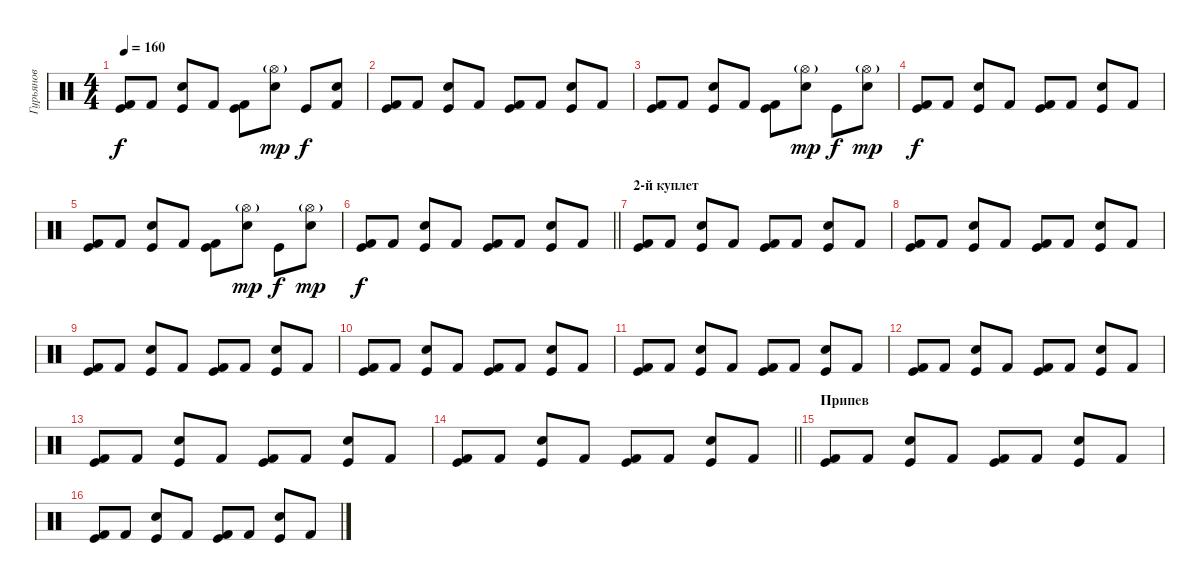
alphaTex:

\track ("Гурьянов" "Гурьянов") {instrument percussion}
\staff {score}
\articulation defaults
\ts (4 4)
\tempo 160
\clef neutral
\ks c
("Kick (hit)" "Kick (hit) 2").8{dy f} "Kick (hit) 2".8 ("Snare (hit) 2" "Kick (hit)").8 "Kick (hit) 2".8 ("Kick (hit)" "Kick (hit) 2").8 ("Hi-Hat (open)"{g} "Snare (hit) 2").8{dy mp} "Kick (hit)".8{dy f} ("Snare (hit) 2" "Kick (hit) 2").8 |
("Kick (hit)" "Kick (hit) 2").8 "Kick (hit) 2".8 ("Snare (hit) 2" "Kick (hit)").8 "Kick (hit) 2".8 ("Kick (hit)" "Kick (hit) 2").8 "Kick (hit) 2".8 ("Snare (hit) 2" "Kick (hit)").8 "Kick (hit) 2".8 |
("Kick (hit)" "Kick (hit) 2").8 "Kick (hit) 2".8 ("Snare (hit) 2" "Kick (hit)").8 "Kick (hit) 2".8 ("Kick (hit)" "Kick (hit) 2").8 ("Hi-Hat (open)"{g} "Snare (hit) 2").8{dy mp} "Kick (hit)".8{dy f} ("Hi-Hat (open)"{g} "Snare (hit) 2").8{dy mp} |
("Kick (hit)" "Kick (hit) 2").8{dy f} "Kick (hit) 2".8 ("Snare (hit) 2" "Kick (hit)").8 "Kick (hit) 2".8 ("Kick (hit)" "Kick (hit) 2").8 "Kick (hit) 2".8 ("Snare (hit) 2" "Kick (hit)").8 "Kick (hit) 2".8 |
("Kick (hit)" "Kick (hit) 2").8 "Kick (hit) 2".8 ("Snare (hit) 2" "Kick (hit)").8 "Kick (hit) 2".8 ("Kick (hit)" "Kick (hit) 2").8 ("Hi-Hat (open)"{g} "Snare (hit) 2").8{dy mp} "Kick (hit)".8{dy f} ("Hi-Hat (open)"{g} "Snare (hit) 2").8{dy mp} |
\barLineRight lightlight
("Kick (hit)" "Kick (hit) 2").8{dy f} "Kick (hit) 2".8 ("Snare (hit) 2" "Kick (hit)").8 "Kick (hit) 2".8 ("Kick (hit)" "Kick (hit) 2").8 "Kick (hit) 2".8 ("Snare (hit) 2" "Kick (hit)").8 "Kick (hit) 2".8 |
\section ("" "2-й куплет")
("Kick (hit)" "Kick (hit) 2").8 "Kick (hit) 2".8 ("Snare (hit) 2" "Kick (hit)").8 "Kick (hit) 2".8 ("Kick (hit)" "Kick (hit) 2").8 "Kick (hit) 2".8 ("Snare (hit) 2" "Kick (hit)").8 "Kick (hit) 2".8 |
("Kick (hit)" "Kick (hit) 2").8 "Kick (hit) 2".8 ("Snare (hit) 2" "Kick (hit)").8 "Kick (hit) 2".8 ("Kick (hit)" "Kick (hit) 2").8 "Kick (hit) 2".8 ("Snare (hit) 2" "Kick (hit)").8 "Kick (hit) 2".8 |
("Kick (hit)" "Kick (hit) 2").8 "Kick (hit) 2".8 ("Snare (hit) 2" "Kick (hit)").8 "Kick (hit) 2".8 ("Kick (hit)" "Kick (hit) 2").8 "Kick (hit) 2".8 ("Snare (hit) 2" "Kick (hit)").8 "Kick (hit) 2".8 |
("Kick (hit)" "Kick (hit) 2").8 "Kick (hit) 2".8 ("Snare (hit) 2" "Kick (hit)").8 "Kick (hit) 2".8 ("Kick (hit)" "Kick (hit) 2").8 "Kick (hit) 2".8 ("Snare (hit) 2" "Kick (hit)").8 "Kick (hit) 2".8 |
("Kick (hit)" "Kick (hit) 2").8 "Kick (hit) 2".8 ("Snare (hit) 2" "Kick (hit)").8 "Kick (hit) 2".8 ("Kick (hit)" "Kick (hit) 2").8 "Kick (hit) 2".8 ("Snare (hit) 2" "Kick (hit)").8 "Kick (hit) 2".8 |
("Kick (hit)" "Kick (hit) 2").8 "Kick (hit) 2".8 ("Snare (hit) 2" "Kick (hit)").8 "Kick (hit) 2".8 ("Kick (hit)" "Kick (hit) 2").8 "Kick (hit) 2".8 ("Snare (hit) 2" "Kick (hit)").8 "Kick (hit) 2".8 |
("Kick (hit)" "Kick (hit) 2").8 "Kick (hit) 2".8 ("Snare (hit) 2" "Kick (hit)").8 "Kick (hit) 2".8 ("Kick (hit)" "Kick (hit) 2").8 "Kick (hit) 2".8 ("Snare (hit) 2" "Kick (hit)").8 "Kick (hit) 2".8 |
\barLineRight lightlight
("Kick (hit)" "Kick (hit) 2").8 "Kick (hit) 2".8 ("Snare (hit) 2" "Kick (hit)").8 "Kick (hit) 2".8 ("Kick (hit)" "Kick (hit) 2").8 "Kick (hit) 2".8 ("Snare (hit) 2" "Kick (hit)").8 "Kick (hit) 2".8 |
\section ("" "Припев")
("Kick (hit)" "Kick (hit) 2").8 "Kick (hit) 2".8 ("Snare (hit) 2" "Kick (hit)").8 "Kick (hit) 2".8 ("Kick (hit)" "Kick (hit) 2").8 "Kick (hit) 2".8 ("Snare (hit) 2" "Kick (hit)").8 "Kick (hit) 2".8 |
("Kick (hit)" "Kick (hit) 2").8 "Kick (hit) 2".8 ("Snare (hit) 2" "Kick (hit)").8 "Kick (hit) 2".8 ("Kick (hit)" "Kick (hit) 2").8 "Kick (hit) 2".8 ("Snare (hit) 2" "Kick (hit)").8 "Kick (hit) 2".8
